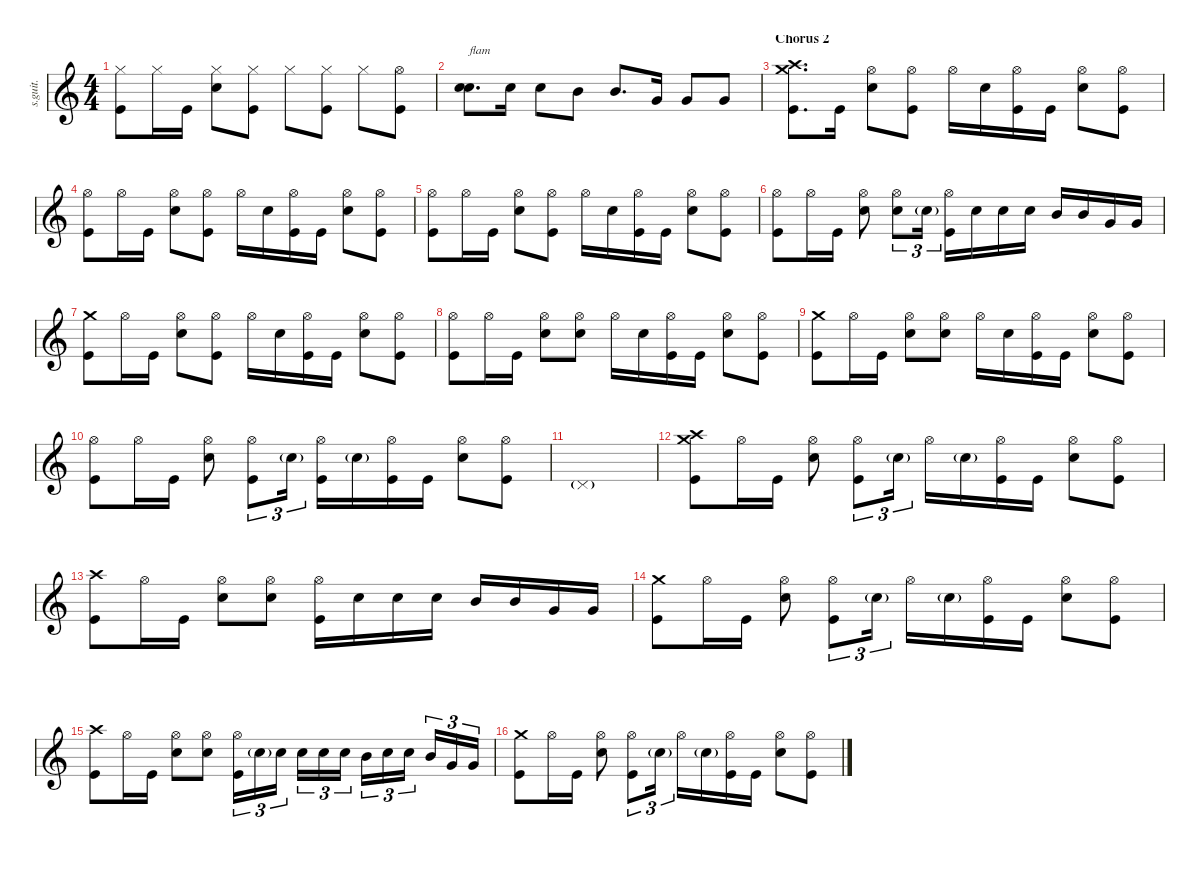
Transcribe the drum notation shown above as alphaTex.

\defaultSystemsLayout 4
\hideDynamics
\bracketExtendMode nobrackets
\track ("Matt Helders" "s.guit.") {instrument percussion}
\staff {score}
\articulation defaults
\ts (4 4)
\tempo (97 hide)
\clef g2
\ks c
("Hi-Hat (closed)" "Kick (hit)").8{lyrics (0 "") lyrics (1 "") lyrics (2 "") lyrics (3 "") lyrics (4 "") dy f} "Hi-Hat (closed)".16{lyrics (0 "") lyrics (1 "") lyrics (2 "") lyrics (3 "") lyrics (4 "")} "Kick (hit)".16{lyrics (0 "") lyrics (1 "") lyrics (2 "") lyrics (3 "") lyrics (4 "")} ("Hi-Hat (closed)" "Snare (hit) 2").8{lyrics (0 "") lyrics (1 "") lyrics (2 "") lyrics (3 "") lyrics (4 "")} ("Hi-Hat (closed)" "Kick (hit)").8{lyrics (0 "") lyrics (1 "") lyrics (2 "") lyrics (3 "") lyrics (4 "")} "Hi-Hat (closed)".8{lyrics (0 "") lyrics (1 "") lyrics (2 "") lyrics (3 "") lyrics (4 "")} ("Hi-Hat (closed)" "Kick (hit)").8{lyrics (0 "") lyrics (1 "") lyrics (2 "") lyrics (3 "") lyrics (4 "")} "Hi-Hat (closed)".8{lyrics (0 "") lyrics (1 "") lyrics (2 "") lyrics (3 "") lyrics (4 "")} ("Hi-Hat (open)" "Kick (hit)").8{lyrics (0 "") lyrics (1 "") lyrics (2 "") lyrics (3 "") lyrics (4 "")} |
("Snare (hit) 2" "Snare (hit) 2").8{d bd 30 txt "flam" lyrics (0 "") lyrics (1 "") lyrics (2 "") lyrics (3 "") lyrics (4 "")} "Snare (hit) 2".16{lyrics (0 "") lyrics (1 "") lyrics (2 "") lyrics (3 "") lyrics (4 "")} "Snare (hit) 2".8{lyrics (0 "") lyrics (1 "") lyrics (2 "") lyrics (3 "") lyrics (4 "")} "Mid Tom (hit)".8{lyrics (0 "") lyrics (1 "") lyrics (2 "") lyrics (3 "") lyrics (4 "")} "Mid Tom (hit)".8{d lyrics (0 "") lyrics (1 "") lyrics (2 "") lyrics (3 "") lyrics (4 "")} "Very Low Tom (hit)".16{lyrics (0 "") lyrics (1 "") lyrics (2 "") lyrics (3 "") lyrics (4 "")} "Very Low Tom (hit)".8{lyrics (0 "") lyrics (1 "") lyrics (2 "") lyrics (3 "") lyrics (4 "")} "Very Low Tom (hit)".8{lyrics (0 "") lyrics (1 "") lyrics (2 "") lyrics (3 "") lyrics (4 "")} |
\section ("" "Chorus 2")
("Crash high (hit)" "Crash medium (hit)" "Kick (hit)").8{d lyrics (0 "") lyrics (1 "") lyrics (2 "") lyrics (3 "") lyrics (4 "")} "Kick (hit)".16{lyrics (0 "") lyrics (1 "") lyrics (2 "") lyrics (3 "") lyrics (4 "")} ("Hi-Hat (open)" "Snare (hit) 2").8{lyrics (0 "") lyrics (1 "") lyrics (2 "") lyrics (3 "") lyrics (4 "")} ("Hi-Hat (open)" "Kick (hit)").8{lyrics (0 "") lyrics (1 "") lyrics (2 "") lyrics (3 "") lyrics (4 "")} "Hi-Hat (open)".16{lyrics (0 "") lyrics (1 "") lyrics (2 "") lyrics (3 "") lyrics (4 "")} "Snare (hit) 2".16{lyrics (0 "") lyrics (1 "") lyrics (2 "") lyrics (3 "") lyrics (4 "")} ("Hi-Hat (open)" "Kick (hit)").16{lyrics (0 "") lyrics (1 "") lyrics (2 "") lyrics (3 "") lyrics (4 "")} "Kick (hit)".16{lyrics (0 "") lyrics (1 "") lyrics (2 "") lyrics (3 "") lyrics (4 "")} ("Hi-Hat (open)" "Snare (hit) 2").8{lyrics (0 "") lyrics (1 "") lyrics (2 "") lyrics (3 "") lyrics (4 "")} ("Hi-Hat (open)" "Kick (hit)").8{lyrics (0 "") lyrics (1 "") lyrics (2 "") lyrics (3 "") lyrics (4 "")} |
("Hi-Hat (open)" "Kick (hit)").8{lyrics (0 "") lyrics (1 "") lyrics (2 "") lyrics (3 "") lyrics (4 "")} "Hi-Hat (open)".16{lyrics (0 "") lyrics (1 "") lyrics (2 "") lyrics (3 "") lyrics (4 "")} "Kick (hit)".16{lyrics (0 "") lyrics (1 "") lyrics (2 "") lyrics (3 "") lyrics (4 "")} ("Hi-Hat (open)" "Snare (hit) 2").8{lyrics (0 "") lyrics (1 "") lyrics (2 "") lyrics (3 "") lyrics (4 "")} ("Hi-Hat (open)" "Kick (hit)").8{lyrics (0 "") lyrics (1 "") lyrics (2 "") lyrics (3 "") lyrics (4 "")} "Hi-Hat (open)".16{lyrics (0 "") lyrics (1 "") lyrics (2 "") lyrics (3 "") lyrics (4 "")} "Snare (hit) 2".16{lyrics (0 "") lyrics (1 "") lyrics (2 "") lyrics (3 "") lyrics (4 "")} ("Hi-Hat (open)" "Kick (hit)").16{lyrics (0 "") lyrics (1 "") lyrics (2 "") lyrics (3 "") lyrics (4 "")} "Kick (hit)".16{lyrics (0 "") lyrics (1 "") lyrics (2 "") lyrics (3 "") lyrics (4 "")} ("Hi-Hat (open)" "Snare (hit) 2").8{lyrics (0 "") lyrics (1 "") lyrics (2 "") lyrics (3 "") lyrics (4 "")} ("Hi-Hat (open)" "Kick (hit)").8{lyrics (0 "") lyrics (1 "") lyrics (2 "") lyrics (3 "") lyrics (4 "")} |
("Hi-Hat (open)" "Kick (hit)").8{lyrics (0 "") lyrics (1 "") lyrics (2 "") lyrics (3 "") lyrics (4 "")} "Hi-Hat (open)".16{lyrics (0 "") lyrics (1 "") lyrics (2 "") lyrics (3 "") lyrics (4 "")} "Kick (hit)".16{lyrics (0 "") lyrics (1 "") lyrics (2 "") lyrics (3 "") lyrics (4 "")} ("Hi-Hat (open)" "Snare (hit) 2").8{lyrics (0 "") lyrics (1 "") lyrics (2 "") lyrics (3 "") lyrics (4 "")} ("Hi-Hat (open)" "Kick (hit)").8{lyrics (0 "") lyrics (1 "") lyrics (2 "") lyrics (3 "") lyrics (4 "")} "Hi-Hat (open)".16{lyrics (0 "") lyrics (1 "") lyrics (2 "") lyrics (3 "") lyrics (4 "")} "Snare (hit) 2".16{lyrics (0 "") lyrics (1 "") lyrics (2 "") lyrics (3 "") lyrics (4 "")} ("Hi-Hat (open)" "Kick (hit)").16{lyrics (0 "") lyrics (1 "") lyrics (2 "") lyrics (3 "") lyrics (4 "")} "Kick (hit)".16{lyrics (0 "") lyrics (1 "") lyrics (2 "") lyrics (3 "") lyrics (4 "")} ("Hi-Hat (open)" "Snare (hit) 2").8{lyrics (0 "") lyrics (1 "") lyrics (2 "") lyrics (3 "") lyrics (4 "")} ("Hi-Hat (open)" "Kick (hit)").8{lyrics (0 "") lyrics (1 "") lyrics (2 "") lyrics (3 "") lyrics (4 "")} |
("Hi-Hat (open)" "Kick (hit)").8{lyrics (0 "") lyrics (1 "") lyrics (2 "") lyrics (3 "") lyrics (4 "")} "Hi-Hat (open)".16{lyrics (0 "") lyrics (1 "") lyrics (2 "") lyrics (3 "") lyrics (4 "")} "Kick (hit)".16{lyrics (0 "") lyrics (1 "") lyrics (2 "") lyrics (3 "") lyrics (4 "")} ("Hi-Hat (open)" "Snare (hit) 2").8{lyrics (0 "") lyrics (1 "") lyrics (2 "") lyrics (3 "") lyrics (4 "")} ("Hi-Hat (open)" "Snare (hit) 2").8{tu (3 2) lyrics (0 "") lyrics (1 "") lyrics (2 "") lyrics (3 "") lyrics (4 "")} "Snare (hit) 2"{g}.16{tu (3 2) lyrics (0 "") lyrics (1 "") lyrics (2 "") lyrics (3 "") lyrics (4 "") dy p} ("Hi-Hat (open)" "Kick (hit)").16{lyrics (0 "") lyrics (1 "") lyrics (2 "") lyrics (3 "") lyrics (4 "") dy f} "Snare (hit) 2".16{lyrics (0 "") lyrics (1 "") lyrics (2 "") lyrics (3 "") lyrics (4 "")} "Snare (hit) 2".16{lyrics (0 "") lyrics (1 "") lyrics (2 "") lyrics (3 "") lyrics (4 "")} "Snare (hit) 2".16{lyrics (0 "") lyrics (1 "") lyrics (2 "") lyrics (3 "") lyrics (4 "")} "Mid Tom (hit)".16{lyrics (0 "") lyrics (1 "") lyrics (2 "") lyrics (3 "") lyrics (4 "")} "Mid Tom (hit)".16{lyrics (0 "") lyrics (1 "") lyrics (2 "") lyrics (3 "") lyrics (4 "")} "Very Low Tom (hit)".16{lyrics (0 "") lyrics (1 "") lyrics (2 "") lyrics (3 "") lyrics (4 "")} "Very Low Tom (hit)".16{lyrics (0 "") lyrics (1 "") lyrics (2 "") lyrics (3 "") lyrics (4 "")} |
("Crash medium (hit)" "Kick (hit)").8{lyrics (0 "") lyrics (1 "") lyrics (2 "") lyrics (3 "") lyrics (4 "")} "Hi-Hat (open)".16{lyrics (0 "") lyrics (1 "") lyrics (2 "") lyrics (3 "") lyrics (4 "")} "Kick (hit)".16{lyrics (0 "") lyrics (1 "") lyrics (2 "") lyrics (3 "") lyrics (4 "")} ("Hi-Hat (open)" "Snare (hit) 2").8{lyrics (0 "") lyrics (1 "") lyrics (2 "") lyrics (3 "") lyrics (4 "")} ("Hi-Hat (open)" "Kick (hit)").8{lyrics (0 "") lyrics (1 "") lyrics (2 "") lyrics (3 "") lyrics (4 "")} "Hi-Hat (open)".16{lyrics (0 "") lyrics (1 "") lyrics (2 "") lyrics (3 "") lyrics (4 "")} "Snare (hit) 2".16{lyrics (0 "") lyrics (1 "") lyrics (2 "") lyrics (3 "") lyrics (4 "")} ("Hi-Hat (open)" "Kick (hit)").16{lyrics (0 "") lyrics (1 "") lyrics (2 "") lyrics (3 "") lyrics (4 "")} "Kick (hit)".16{lyrics (0 "") lyrics (1 "") lyrics (2 "") lyrics (3 "") lyrics (4 "")} ("Hi-Hat (open)" "Snare (hit) 2").8{lyrics (0 "") lyrics (1 "") lyrics (2 "") lyrics (3 "") lyrics (4 "")} ("Hi-Hat (open)" "Kick (hit)").8{lyrics (0 "") lyrics (1 "") lyrics (2 "") lyrics (3 "") lyrics (4 "")} |
("Hi-Hat (open)" "Kick (hit)").8{lyrics (0 "") lyrics (1 "") lyrics (2 "") lyrics (3 "") lyrics (4 "")} "Hi-Hat (open)".16{lyrics (0 "") lyrics (1 "") lyrics (2 "") lyrics (3 "") lyrics (4 "")} "Kick (hit)".16{lyrics (0 "") lyrics (1 "") lyrics (2 "") lyrics (3 "") lyrics (4 "")} ("Hi-Hat (open)" "Snare (hit) 2").8{lyrics (0 "") lyrics (1 "") lyrics (2 "") lyrics (3 "") lyrics (4 "")} ("Hi-Hat (open)" "Snare (hit) 2").8{lyrics (0 "") lyrics (1 "") lyrics (2 "") lyrics (3 "") lyrics (4 "")} "Hi-Hat (open)".16{lyrics (0 "") lyrics (1 "") lyrics (2 "") lyrics (3 "") lyrics (4 "")} "Snare (hit) 2".16{lyrics (0 "") lyrics (1 "") lyrics (2 "") lyrics (3 "") lyrics (4 "")} ("Hi-Hat (open)" "Kick (hit)").16{lyrics (0 "") lyrics (1 "") lyrics (2 "") lyrics (3 "") lyrics (4 "")} "Kick (hit)".16{lyrics (0 "") lyrics (1 "") lyrics (2 "") lyrics (3 "") lyrics (4 "")} ("Hi-Hat (open)" "Snare (hit) 2").8{lyrics (0 "") lyrics (1 "") lyrics (2 "") lyrics (3 "") lyrics (4 "")} ("Hi-Hat (open)" "Kick (hit)").8{lyrics (0 "") lyrics (1 "") lyrics (2 "") lyrics (3 "") lyrics (4 "")} |
("Crash medium (hit)" "Kick (hit)").8{lyrics (0 "") lyrics (1 "") lyrics (2 "") lyrics (3 "") lyrics (4 "")} "Hi-Hat (open)".16{lyrics (0 "") lyrics (1 "") lyrics (2 "") lyrics (3 "") lyrics (4 "")} "Kick (hit)".16{lyrics (0 "") lyrics (1 "") lyrics (2 "") lyrics (3 "") lyrics (4 "")} ("Hi-Hat (open)" "Snare (hit) 2").8{lyrics (0 "") lyrics (1 "") lyrics (2 "") lyrics (3 "") lyrics (4 "")} ("Hi-Hat (open)" "Snare (hit) 2").8{lyrics (0 "") lyrics (1 "") lyrics (2 "") lyrics (3 "") lyrics (4 "")} "Hi-Hat (open)".16{lyrics (0 "") lyrics (1 "") lyrics (2 "") lyrics (3 "") lyrics (4 "")} "Snare (hit) 2".16{lyrics (0 "") lyrics (1 "") lyrics (2 "") lyrics (3 "") lyrics (4 "")} ("Hi-Hat (open)" "Kick (hit)").16{lyrics (0 "") lyrics (1 "") lyrics (2 "") lyrics (3 "") lyrics (4 "")} "Kick (hit)".16{lyrics (0 "") lyrics (1 "") lyrics (2 "") lyrics (3 "") lyrics (4 "")} ("Hi-Hat (open)" "Snare (hit) 2").8{lyrics (0 "") lyrics (1 "") lyrics (2 "") lyrics (3 "") lyrics (4 "")} ("Hi-Hat (open)" "Kick (hit)").8{lyrics (0 "") lyrics (1 "") lyrics (2 "") lyrics (3 "") lyrics (4 "")} |
("Hi-Hat (open)" "Kick (hit)").8{lyrics (0 "") lyrics (1 "") lyrics (2 "") lyrics (3 "") lyrics (4 "")} "Hi-Hat (open)".16{lyrics (0 "") lyrics (1 "") lyrics (2 "") lyrics (3 "") lyrics (4 "")} "Kick (hit)".16{lyrics (0 "") lyrics (1 "") lyrics (2 "") lyrics (3 "") lyrics (4 "")} ("Hi-Hat (open)" "Snare (hit) 2").8{lyrics (0 "") lyrics (1 "") lyrics (2 "") lyrics (3 "") lyrics (4 "")} ("Hi-Hat (open)" "Kick (hit)").8{tu (3 2) lyrics (0 "") lyrics (1 "") lyrics (2 "") lyrics (3 "") lyrics (4 "")} "Snare (hit) 2"{g}.16{tu (3 2) lyrics (0 "") lyrics (1 "") lyrics (2 "") lyrics (3 "") lyrics (4 "") dy p} ("Hi-Hat (open)" "Kick (hit)").16{lyrics (0 "") lyrics (1 "") lyrics (2 "") lyrics (3 "") lyrics (4 "") dy f} "Snare (hit) 2"{g}.16{lyrics (0 "") lyrics (1 "") lyrics (2 "") lyrics (3 "") lyrics (4 "") dy mp} ("Hi-Hat (open)" "Kick (hit)").16{lyrics (0 "") lyrics (1 "") lyrics (2 "") lyrics (3 "") lyrics (4 "") dy f} "Kick (hit)".16{lyrics (0 "") lyrics (1 "") lyrics (2 "") lyrics (3 "") lyrics (4 "")} ("Hi-Hat (open)" "Snare (hit) 2").8{lyrics (0 "") lyrics (1 "") lyrics (2 "") lyrics (3 "") lyrics (4 "")} ("Hi-Hat (open)" "Kick (hit)").8{lyrics (0 "") lyrics (1 "") lyrics (2 "") lyrics (3 "") lyrics (4 "")} |
"Pedal Hi-Hat (hit)"{g}.1{lyrics (0 "") lyrics (1 "") lyrics (2 "") lyrics (3 "") lyrics (4 "") dy mp} |
("Crash high (hit)" "Crash medium (hit)" "Kick (hit)").8{lyrics (0 "") lyrics (1 "") lyrics (2 "") lyrics (3 "") lyrics (4 "") dy f} "Hi-Hat (open)".16{lyrics (0 "") lyrics (1 "") lyrics (2 "") lyrics (3 "") lyrics (4 "")} "Kick (hit)".16{lyrics (0 "") lyrics (1 "") lyrics (2 "") lyrics (3 "") lyrics (4 "")} ("Hi-Hat (open)" "Snare (hit) 2").8{lyrics (0 "") lyrics (1 "") lyrics (2 "") lyrics (3 "") lyrics (4 "")} ("Hi-Hat (open)" "Kick (hit)").8{tu (3 2) lyrics (0 "") lyrics (1 "") lyrics (2 "") lyrics (3 "") lyrics (4 "")} "Snare (hit) 2"{g}.16{tu (3 2) lyrics (0 "") lyrics (1 "") lyrics (2 "") lyrics (3 "") lyrics (4 "") dy p} "Hi-Hat (open)".16{lyrics (0 "") lyrics (1 "") lyrics (2 "") lyrics (3 "") lyrics (4 "") dy f} "Snare (hit) 2"{g}.16{lyrics (0 "") lyrics (1 "") lyrics (2 "") lyrics (3 "") lyrics (4 "") dy mp} ("Hi-Hat (open)" "Kick (hit)").16{lyrics (0 "") lyrics (1 "") lyrics (2 "") lyrics (3 "") lyrics (4 "") dy f} "Kick (hit)".16{lyrics (0 "") lyrics (1 "") lyrics (2 "") lyrics (3 "") lyrics (4 "")} ("Hi-Hat (open)" "Snare (hit) 2").8{lyrics (0 "") lyrics (1 "") lyrics (2 "") lyrics (3 "") lyrics (4 "")} ("Hi-Hat (open)" "Kick (hit)").8{lyrics (0 "") lyrics (1 "") lyrics (2 "") lyrics (3 "") lyrics (4 "")} |
("Crash high (hit)" "Kick (hit)").8{lyrics (0 "") lyrics (1 "") lyrics (2 "") lyrics (3 "") lyrics (4 "")} "Hi-Hat (open)".16{lyrics (0 "") lyrics (1 "") lyrics (2 "") lyrics (3 "") lyrics (4 "")} "Kick (hit)".16{lyrics (0 "") lyrics (1 "") lyrics (2 "") lyrics (3 "") lyrics (4 "")} ("Hi-Hat (open)" "Snare (hit) 2").8{lyrics (0 "") lyrics (1 "") lyrics (2 "") lyrics (3 "") lyrics (4 "")} ("Hi-Hat (open)" "Snare (hit) 2").8{lyrics (0 "") lyrics (1 "") lyrics (2 "") lyrics (3 "") lyrics (4 "")} ("Hi-Hat (open)" "Kick (hit)").16{lyrics (0 "") lyrics (1 "") lyrics (2 "") lyrics (3 "") lyrics (4 "")} "Snare (hit) 2".16{lyrics (0 "") lyrics (1 "") lyrics (2 "") lyrics (3 "") lyrics (4 "")} "Snare (hit) 2".16{lyrics (0 "") lyrics (1 "") lyrics (2 "") lyrics (3 "") lyrics (4 "")} "Snare (hit) 2".16{lyrics (0 "") lyrics (1 "") lyrics (2 "") lyrics (3 "") lyrics (4 "")} "Mid Tom (hit)".16{lyrics (0 "") lyrics (1 "") lyrics (2 "") lyrics (3 "") lyrics (4 "")} "Mid Tom (hit)".16{lyrics (0 "") lyrics (1 "") lyrics (2 "") lyrics (3 "") lyrics (4 "")} "Very Low Tom (hit)".16{lyrics (0 "") lyrics (1 "") lyrics (2 "") lyrics (3 "") lyrics (4 "")} "Very Low Tom (hit)".16{lyrics (0 "") lyrics (1 "") lyrics (2 "") lyrics (3 "") lyrics (4 "")} |
("Crash medium (hit)" "Kick (hit)").8{lyrics (0 "") lyrics (1 "") lyrics (2 "") lyrics (3 "") lyrics (4 "")} "Hi-Hat (open)".16{lyrics (0 "") lyrics (1 "") lyrics (2 "") lyrics (3 "") lyrics (4 "")} "Kick (hit)".16{lyrics (0 "") lyrics (1 "") lyrics (2 "") lyrics (3 "") lyrics (4 "")} ("Hi-Hat (open)" "Snare (hit) 2").8{lyrics (0 "") lyrics (1 "") lyrics (2 "") lyrics (3 "") lyrics (4 "")} ("Hi-Hat (open)" "Kick (hit)").8{tu (3 2) lyrics (0 "") lyrics (1 "") lyrics (2 "") lyrics (3 "") lyrics (4 "")} "Snare (hit) 2"{g}.16{tu (3 2) lyrics (0 "") lyrics (1 "") lyrics (2 "") lyrics (3 "") lyrics (4 "") dy p} "Hi-Hat (open)".16{lyrics (0 "") lyrics (1 "") lyrics (2 "") lyrics (3 "") lyrics (4 "") dy f} "Snare (hit) 2"{g}.16{lyrics (0 "") lyrics (1 "") lyrics (2 "") lyrics (3 "") lyrics (4 "") dy mp} ("Hi-Hat (open)" "Kick (hit)").16{lyrics (0 "") lyrics (1 "") lyrics (2 "") lyrics (3 "") lyrics (4 "") dy f} "Kick (hit)".16{lyrics (0 "") lyrics (1 "") lyrics (2 "") lyrics (3 "") lyrics (4 "")} ("Hi-Hat (open)" "Snare (hit) 2").8{lyrics (0 "") lyrics (1 "") lyrics (2 "") lyrics (3 "") lyrics (4 "")} ("Hi-Hat (open)" "Kick (hit)").8{lyrics (0 "") lyrics (1 "") lyrics (2 "") lyrics (3 "") lyrics (4 "")} |
("Crash high (hit)" "Kick (hit)").8{lyrics (0 "") lyrics (1 "") lyrics (2 "") lyrics (3 "") lyrics (4 "")} "Hi-Hat (open)".16{lyrics (0 "") lyrics (1 "") lyrics (2 "") lyrics (3 "") lyrics (4 "")} "Kick (hit)".16{lyrics (0 "") lyrics (1 "") lyrics (2 "") lyrics (3 "") lyrics (4 "")} ("Hi-Hat (open)" "Snare (hit) 2").8{lyrics (0 "") lyrics (1 "") lyrics (2 "") lyrics (3 "") lyrics (4 "")} ("Hi-Hat (open)" "Snare (hit) 2").8{lyrics (0 "") lyrics (1 "") lyrics (2 "") lyrics (3 "") lyrics (4 "")} ("Hi-Hat (open)" "Kick (hit)").16{tu (3 2) lyrics (0 "") lyrics (1 "") lyrics (2 "") lyrics (3 "") lyrics (4 "")} "Snare (hit) 2"{g}.16{tu (3 2) lyrics (0 "") lyrics (1 "") lyrics (2 "") lyrics (3 "") lyrics (4 "") dy mp} "Snare (hit) 2".16{tu (3 2) lyrics (0 "") lyrics (1 "") lyrics (2 "") lyrics (3 "") lyrics (4 "") dy f} "Snare (hit) 2".16{tu (3 2) lyrics (0 "") lyrics (1 "") lyrics (2 "") lyrics (3 "") lyrics (4 "")} "Snare (hit) 2".16{tu (3 2) lyrics (0 "") lyrics (1 "") lyrics (2 "") lyrics (3 "") lyrics (4 "")} "Snare (hit) 2".16{tu (3 2) lyrics (0 "") lyrics (1 "") lyrics (2 "") lyrics (3 "") lyrics (4 "")} "Mid Tom (hit)".16{tu (3 2) lyrics (0 "") lyrics (1 "") lyrics (2 "") lyrics (3 "") lyrics (4 "")} "Snare (hit) 2".16{tu (3 2) lyrics (0 "") lyrics (1 "") lyrics (2 "") lyrics (3 "") lyrics (4 "")} "Snare (hit) 2".16{tu (3 2) lyrics (0 "") lyrics (1 "") lyrics (2 "") lyrics (3 "") lyrics (4 "")} "Mid Tom (hit)".16{tu (3 2) lyrics (0 "") lyrics (1 "") lyrics (2 "") lyrics (3 "") lyrics (4 "")} "Very Low Tom (hit)".16{tu (3 2) lyrics (0 "") lyrics (1 "") lyrics (2 "") lyrics (3 "") lyrics (4 "")} "Very Low Tom (hit)".16{tu (3 2) lyrics (0 "") lyrics (1 "") lyrics (2 "") lyrics (3 "") lyrics (4 "")} |
("Crash medium (hit)" "Kick (hit)").8{lyrics (0 "") lyrics (1 "") lyrics (2 "") lyrics (3 "") lyrics (4 "")} "Hi-Hat (open)".16{lyrics (0 "") lyrics (1 "") lyrics (2 "") lyrics (3 "") lyrics (4 "")} "Kick (hit)".16{lyrics (0 "") lyrics (1 "") lyrics (2 "") lyrics (3 "") lyrics (4 "")} ("Hi-Hat (open)" "Snare (hit) 2").8{lyrics (0 "") lyrics (1 "") lyrics (2 "") lyrics (3 "") lyrics (4 "")} ("Hi-Hat (open)" "Kick (hit)").8{tu (3 2) lyrics (0 "") lyrics (1 "") lyrics (2 "") lyrics (3 "") lyrics (4 "")} "Snare (hit) 2"{g}.16{tu (3 2) lyrics (0 "") lyrics (1 "") lyrics (2 "") lyrics (3 "") lyrics (4 "") dy p} "Hi-Hat (open)".16{lyrics (0 "") lyrics (1 "") lyrics (2 "") lyrics (3 "") lyrics (4 "") dy f} "Snare (hit) 2"{g}.16{lyrics (0 "") lyrics (1 "") lyrics (2 "") lyrics (3 "") lyrics (4 "") dy mp} ("Hi-Hat (open)" "Kick (hit)").16{lyrics (0 "") lyrics (1 "") lyrics (2 "") lyrics (3 "") lyrics (4 "") dy f} "Kick (hit)".16{lyrics (0 "") lyrics (1 "") lyrics (2 "") lyrics (3 "") lyrics (4 "")} ("Hi-Hat (open)" "Snare (hit) 2").8{lyrics (0 "") lyrics (1 "") lyrics (2 "") lyrics (3 "") lyrics (4 "")} ("Hi-Hat (open)" "Kick (hit)").8{lyrics (0 "") lyrics (1 "") lyrics (2 "") lyrics (3 "") lyrics (4 "")}
